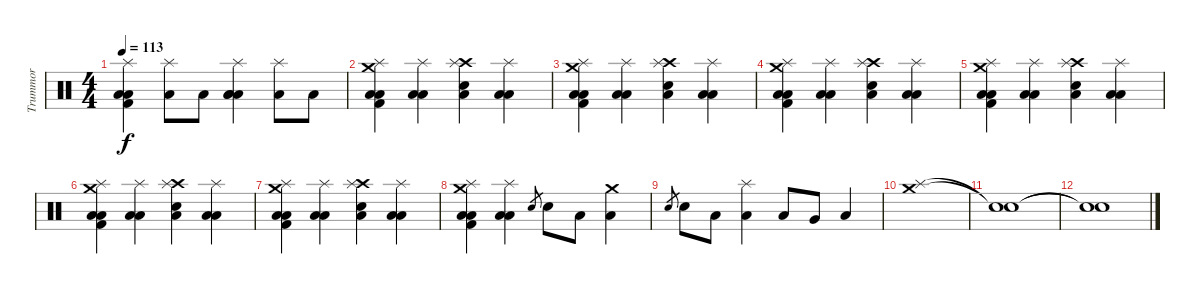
\track ("Trummor" "Trummor") {instrument percussion}
\staff {score}
\articulation defaults
\ts (4 4)
\tempo 113
\clef neutral
\ks c
("Splash (hit)" "Low Floor Tom (hit)" "Low Floor Tom (hit)" "Kick (hit) 2").4{dy f} ("Splash (hit)" "Low Floor Tom (hit)").8 "Low Floor Tom (hit)".8 ("Splash (hit)" "Low Floor Tom (hit)" "Low Floor Tom (hit)" "Low Tom (hit)").4 ("Splash (hit)" "Low Floor Tom (hit)").8 "Low Floor Tom (hit)".8 |
("Crash medium (hit)" "Splash (hit)" "Low Floor Tom (hit)" "Low Floor Tom (hit)" "Kick (hit) 2").4 ("Splash (hit)" "Low Floor Tom (hit)" "Low Floor Tom (hit)").4 ("Crash high (hit)" "Splash (hit)" "Low Floor Tom (hit)" "Snare (hit) 2").4 ("Splash (hit)" "Low Floor Tom (hit)" "Low Floor Tom (hit)").4 |
("Crash medium (hit)" "Splash (hit)" "Low Floor Tom (hit)" "Low Floor Tom (hit)" "Kick (hit) 2").4 ("Splash (hit)" "Low Floor Tom (hit)" "Low Floor Tom (hit)").4 ("Crash high (hit)" "Splash (hit)" "Low Floor Tom (hit)" "Snare (hit) 2").4 ("Splash (hit)" "Low Floor Tom (hit)" "Low Floor Tom (hit)").4 |
("Crash medium (hit)" "Splash (hit)" "Low Floor Tom (hit)" "Low Floor Tom (hit)" "Kick (hit) 2").4 ("Splash (hit)" "Low Floor Tom (hit)" "Low Floor Tom (hit)").4 ("Crash high (hit)" "Splash (hit)" "Low Floor Tom (hit)" "Snare (hit) 2").4 ("Splash (hit)" "Low Floor Tom (hit)" "Low Floor Tom (hit)").4 |
("Crash medium (hit)" "Splash (hit)" "Low Floor Tom (hit)" "Low Floor Tom (hit)" "Kick (hit) 2").4 ("Splash (hit)" "Low Floor Tom (hit)" "Low Floor Tom (hit)").4 ("Crash high (hit)" "Splash (hit)" "Low Floor Tom (hit)" "Snare (hit) 2").4 ("Splash (hit)" "Low Floor Tom (hit)" "Low Floor Tom (hit)").4 |
("Crash medium (hit)" "Splash (hit)" "Low Floor Tom (hit)" "Low Floor Tom (hit)" "Kick (hit) 2").4 ("Splash (hit)" "Low Floor Tom (hit)" "Low Floor Tom (hit)").4 ("Crash high (hit)" "Splash (hit)" "Low Floor Tom (hit)" "Snare (hit) 2").4 ("Splash (hit)" "Low Floor Tom (hit)" "Low Floor Tom (hit)").4 |
("Crash medium (hit)" "Splash (hit)" "Low Floor Tom (hit)" "Low Floor Tom (hit)" "Kick (hit) 2").4 ("Splash (hit)" "Low Floor Tom (hit)" "Low Floor Tom (hit)").4 ("Crash high (hit)" "Splash (hit)" "Low Floor Tom (hit)" "Snare (hit) 2").4 ("Splash (hit)" "Low Floor Tom (hit)" "Low Floor Tom (hit)").4 |
("Crash medium (hit)" "Splash (hit)" "Low Floor Tom (hit)" "Low Floor Tom (hit)" "Kick (hit) 2").4 ("Splash (hit)" "Low Floor Tom (hit)" "Low Floor Tom (hit)").4 "Snare (hit) 2".8{gr} "Snare (hit) 2".8 "Low Tom (hit)".8 ("Crash medium (hit)" "Low Tom (hit)").4 |
"Snare (hit) 2".8{gr} "Snare (hit) 2".8 "Low Tom (hit)".8 ("Splash (hit)" "Low Tom (hit)").4 "Low Tom (hit)".8 "Very Low Tom (hit)".8 "Low Floor Tom (hit)".4 |
("Crash medium (hit)" "Splash (hit)").1 |
("Snare (hit)"{t} "Snare (hit)"{t}).1{volume 0} |
("Snare (hit)"{t} "Snare (hit)"{t}).1
